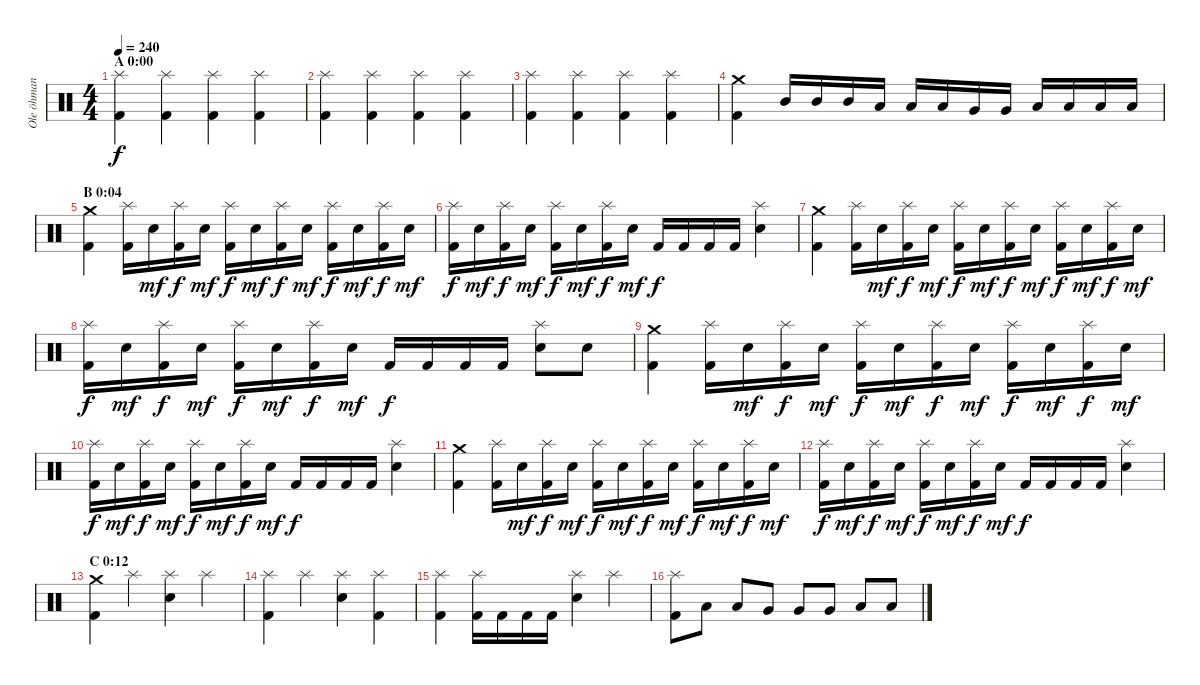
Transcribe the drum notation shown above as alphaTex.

\track ("Ole öhman" "Ole öhman") {instrument percussion}
\staff {score}
\articulation defaults
\ts (4 4)
\section ("" "A 0:00")
\tempo 240
\clef neutral
\ks c
("Splash (hit)" "Kick (hit) 2").4{dy f} ("Splash (hit)" "Kick (hit) 2").4 ("Splash (hit)" "Kick (hit) 2").4 ("Splash (hit)" "Kick (hit) 2").4 |
("Splash (hit)" "Kick (hit) 2").4 ("Splash (hit)" "Kick (hit) 2").4 ("Splash (hit)" "Kick (hit) 2").4 ("Splash (hit)" "Kick (hit) 2").4 |
("Splash (hit)" "Kick (hit) 2").4 ("Splash (hit)" "Kick (hit) 2").4 ("Splash (hit)" "Kick (hit) 2").4 ("Splash (hit)" "Kick (hit) 2").4 |
("Crash medium (hit)" "Kick (hit) 2").4 "Mid Tom (hit)".16 "Mid Tom (hit)".16 "Mid Tom (hit)".16 "Low Tom (hit)".16 "Low Tom (hit)".16 "Low Tom (hit)".16 "Very Low Tom (hit)".16 "Very Low Tom (hit)".16 "Low Floor Tom (hit)".16 "Low Floor Tom (hit)".16 "Low Floor Tom (hit)".16 "Low Floor Tom (hit)".16 |
\section ("" "B 0:04")
("Crash medium (hit)" "Kick (hit) 2").4 ("Splash (hit)" "Kick (hit) 2").16 "Electric Snare (hit)".16{dy mf} ("Splash (hit)" "Kick (hit) 2").16{dy f} "Electric Snare (hit)".16{dy mf} ("Splash (hit)" "Kick (hit) 2").16{dy f} "Electric Snare (hit)".16{dy mf} ("Splash (hit)" "Kick (hit) 2").16{dy f} "Electric Snare (hit)".16{dy mf} ("Splash (hit)" "Kick (hit) 2").16{dy f} "Electric Snare (hit)".16{dy mf} ("Splash (hit)" "Kick (hit) 2").16{dy f} "Electric Snare (hit)".16{dy mf} |
("Splash (hit)" "Kick (hit) 2").16{dy f} "Electric Snare (hit)".16{dy mf} ("Splash (hit)" "Kick (hit) 2").16{dy f} "Electric Snare (hit)".16{dy mf} ("Splash (hit)" "Kick (hit) 2").16{dy f} "Electric Snare (hit)".16{dy mf} ("Splash (hit)" "Kick (hit) 2").16{dy f} "Electric Snare (hit)".16{dy mf} "Kick (hit) 2".16{dy f} "Kick (hit) 2".16 "Kick (hit) 2".16 "Kick (hit) 2".16 ("Splash (hit)" "Electric Snare (hit)").4 |
("Crash medium (hit)" "Kick (hit) 2").4 ("Splash (hit)" "Kick (hit) 2").16 "Electric Snare (hit)".16{dy mf} ("Splash (hit)" "Kick (hit) 2").16{dy f} "Electric Snare (hit)".16{dy mf} ("Splash (hit)" "Kick (hit) 2").16{dy f} "Electric Snare (hit)".16{dy mf} ("Splash (hit)" "Kick (hit) 2").16{dy f} "Electric Snare (hit)".16{dy mf} ("Splash (hit)" "Kick (hit) 2").16{dy f} "Electric Snare (hit)".16{dy mf} ("Splash (hit)" "Kick (hit) 2").16{dy f} "Electric Snare (hit)".16{dy mf} |
("Splash (hit)" "Kick (hit) 2").16{dy f} "Electric Snare (hit)".16{dy mf} ("Splash (hit)" "Kick (hit) 2").16{dy f} "Electric Snare (hit)".16{dy mf} ("Splash (hit)" "Kick (hit) 2").16{dy f} "Electric Snare (hit)".16{dy mf} ("Splash (hit)" "Kick (hit) 2").16{dy f} "Electric Snare (hit)".16{dy mf} "Kick (hit) 2".16{dy f} "Kick (hit) 2".16 "Kick (hit) 2".16 "Kick (hit) 2".16 ("Splash (hit)" "Electric Snare (hit)").8 "Electric Snare (hit)".8 |
("Crash medium (hit)" "Kick (hit) 2").4 ("Splash (hit)" "Kick (hit) 2").16 "Electric Snare (hit)".16{dy mf} ("Splash (hit)" "Kick (hit) 2").16{dy f} "Electric Snare (hit)".16{dy mf} ("Splash (hit)" "Kick (hit) 2").16{dy f} "Electric Snare (hit)".16{dy mf} ("Splash (hit)" "Kick (hit) 2").16{dy f} "Electric Snare (hit)".16{dy mf} ("Splash (hit)" "Kick (hit) 2").16{dy f} "Electric Snare (hit)".16{dy mf} ("Splash (hit)" "Kick (hit) 2").16{dy f} "Electric Snare (hit)".16{dy mf} |
("Splash (hit)" "Kick (hit) 2").16{dy f} "Electric Snare (hit)".16{dy mf} ("Splash (hit)" "Kick (hit) 2").16{dy f} "Electric Snare (hit)".16{dy mf} ("Splash (hit)" "Kick (hit) 2").16{dy f} "Electric Snare (hit)".16{dy mf} ("Splash (hit)" "Kick (hit) 2").16{dy f} "Electric Snare (hit)".16{dy mf} "Kick (hit) 2".16{dy f} "Kick (hit) 2".16 "Kick (hit) 2".16 "Kick (hit) 2".16 ("Splash (hit)" "Electric Snare (hit)").4 |
("Crash medium (hit)" "Kick (hit) 2").4 ("Splash (hit)" "Kick (hit) 2").16 "Electric Snare (hit)".16{dy mf} ("Splash (hit)" "Kick (hit) 2").16{dy f} "Electric Snare (hit)".16{dy mf} ("Splash (hit)" "Kick (hit) 2").16{dy f} "Electric Snare (hit)".16{dy mf} ("Splash (hit)" "Kick (hit) 2").16{dy f} "Electric Snare (hit)".16{dy mf} ("Splash (hit)" "Kick (hit) 2").16{dy f} "Electric Snare (hit)".16{dy mf} ("Splash (hit)" "Kick (hit) 2").16{dy f} "Electric Snare (hit)".16{dy mf} |
("Splash (hit)" "Kick (hit) 2").16{dy f} "Electric Snare (hit)".16{dy mf} ("Splash (hit)" "Kick (hit) 2").16{dy f} "Electric Snare (hit)".16{dy mf} ("Splash (hit)" "Kick (hit) 2").16{dy f} "Electric Snare (hit)".16{dy mf} ("Splash (hit)" "Kick (hit) 2").16{dy f} "Electric Snare (hit)".16{dy mf} "Kick (hit) 2".16{dy f} "Kick (hit) 2".16 "Kick (hit) 2".16 "Kick (hit) 2".16 ("Splash (hit)" "Electric Snare (hit)").4 |
\section ("" "C 0:12")
("Crash medium (hit)" "Kick (hit) 2").4 "Splash (hit)".4 ("Splash (hit)" "Electric Snare (hit)").4 "Splash (hit)".4 |
("Splash (hit)" "Kick (hit) 2").4 "Splash (hit)".4 ("Splash (hit)" "Electric Snare (hit)").4 ("Splash (hit)" "Kick (hit) 2").4 |
("Splash (hit)" "Kick (hit) 2").4 ("Splash (hit)" "Kick (hit) 2").16 "Kick (hit) 2".16 "Kick (hit) 2".16 "Kick (hit) 2".16 ("Splash (hit)" "Electric Snare (hit)").4 "Splash (hit)".4 |
("Splash (hit)" "Kick (hit) 2").8 "Low Tom (hit)".8 "Low Tom (hit)".8 "Very Low Tom (hit)".8 "Very Low Tom (hit)".8 "Very Low Tom (hit)".8 "Low Floor Tom (hit)".8 "Low Floor Tom (hit)".8
